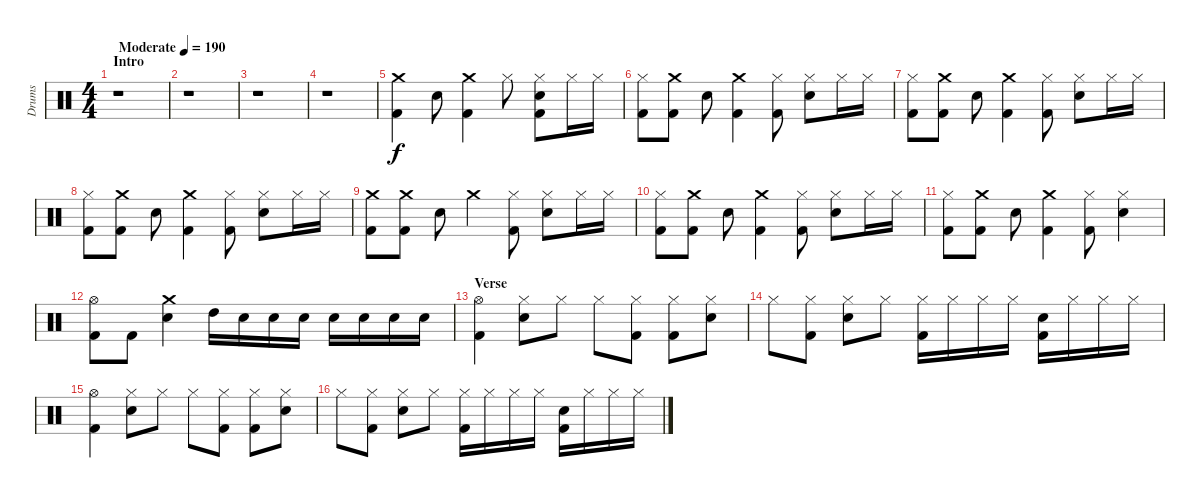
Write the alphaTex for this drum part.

\track ("Drums" "Drums") {instrument percussion}
\staff {score}
\articulation defaults
\ts (4 4)
\section ("" "Intro")
\tempo (190 "Moderate")
\clef neutral
\ks c
r.1{dy f} |
r.1 |
r.1 |
r.1 |
("Crash medium (hit)" "Kick (hit) 2").4 "Snare (hit) 2".8 ("Crash medium (hit)" "Kick (hit) 2").4 "Hi-Hat (closed)".8 ("Hi-Hat (closed)" "Snare (hit) 2" "Kick (hit) 2").8 "Hi-Hat (closed)".16 "Hi-Hat (closed)".16 |
("Hi-Hat (closed)" "Kick (hit) 2").8 ("Crash medium (hit)" "Kick (hit) 2").8 "Snare (hit) 2".8 ("Crash medium (hit)" "Kick (hit) 2").4 ("Hi-Hat (closed)" "Kick (hit) 2").8 ("Hi-Hat (closed)" "Snare (hit) 2").8 "Hi-Hat (closed)".16 "Hi-Hat (closed)".16 |
("Hi-Hat (closed)" "Kick (hit) 2").8 ("Crash medium (hit)" "Kick (hit) 2").8 "Snare (hit) 2".8 ("Crash medium (hit)" "Kick (hit) 2").4 ("Hi-Hat (closed)" "Kick (hit) 2").8 ("Hi-Hat (closed)" "Snare (hit) 2").8 "Hi-Hat (closed)".16 "Hi-Hat (closed)".16 |
("Hi-Hat (closed)" "Kick (hit) 2").8 ("Crash medium (hit)" "Kick (hit) 2").8 "Snare (hit) 2".8 ("Crash medium (hit)" "Kick (hit) 2").4 ("Hi-Hat (closed)" "Kick (hit) 2").8 ("Hi-Hat (closed)" "Snare (hit) 2").8 "Hi-Hat (closed)".16 "Hi-Hat (closed)".16 |
("Crash medium (hit)" "Kick (hit) 2").8 ("Crash medium (hit)" "Kick (hit) 2").8 "Snare (hit) 2".8 "Crash medium (hit)".4 ("Hi-Hat (closed)" "Kick (hit) 2").8 ("Hi-Hat (closed)" "Snare (hit) 2").8 "Hi-Hat (closed)".16 "Hi-Hat (closed)".16 |
("Hi-Hat (closed)" "Kick (hit) 2").8 ("Crash medium (hit)" "Kick (hit) 2").8 "Snare (hit) 2".8 ("Crash medium (hit)" "Kick (hit) 2").4 ("Hi-Hat (closed)" "Kick (hit) 2").8 ("Hi-Hat (closed)" "Snare (hit) 2").8 "Hi-Hat (closed)".16 "Hi-Hat (closed)".16 |
("Hi-Hat (closed)" "Kick (hit) 2").8 ("Crash medium (hit)" "Kick (hit) 2").8 "Snare (hit) 2".8 ("Crash medium (hit)" "Kick (hit) 2").4 ("Hi-Hat (closed)" "Kick (hit) 2").8 ("Hi-Hat (closed)" "Snare (hit) 2").4 |
("Hi-Hat (open)" "Kick (hit) 2").8 "Kick (hit) 2".8 ("Crash medium (hit)" "Snare (hit) 2").4 "High Tom (hit)".16 "Snare (hit) 2".16 "Snare (hit) 2".16 "Snare (hit) 2".16 "Snare (hit) 2".16 "Snare (hit) 2".16 "Snare (hit) 2".16 "Snare (hit) 2".16 |
\section ("" "Verse")
("Hi-Hat (open)" "Kick (hit) 2").4 ("Hi-Hat (closed)" "Snare (hit) 2").8 "Hi-Hat (closed)".8 "Hi-Hat (closed)".8 ("Hi-Hat (closed)" "Kick (hit) 2").8 ("Hi-Hat (closed)" "Kick (hit) 2").8 ("Hi-Hat (closed)" "Snare (hit) 2").8 |
"Hi-Hat (closed)".8 ("Hi-Hat (closed)" "Kick (hit) 2").8 ("Hi-Hat (closed)" "Snare (hit) 2").8 "Hi-Hat (closed)".8 ("Hi-Hat (closed)" "Kick (hit) 2").16 "Hi-Hat (closed)".16 "Hi-Hat (closed)".16 "Hi-Hat (closed)".16 ("Snare (hit) 2" "Kick (hit) 2").16 "Hi-Hat (closed)".16 "Hi-Hat (closed)".16 "Hi-Hat (closed)".16 |
("Hi-Hat (open)" "Kick (hit) 2").4 ("Hi-Hat (closed)" "Snare (hit) 2").8 "Hi-Hat (closed)".8 "Hi-Hat (closed)".8 ("Hi-Hat (closed)" "Kick (hit) 2").8 ("Hi-Hat (closed)" "Kick (hit) 2").8 ("Hi-Hat (closed)" "Snare (hit) 2").8 |
"Hi-Hat (closed)".8 ("Hi-Hat (closed)" "Kick (hit) 2").8 ("Hi-Hat (closed)" "Snare (hit) 2").8 "Hi-Hat (closed)".8 ("Hi-Hat (closed)" "Kick (hit) 2").16 "Hi-Hat (closed)".16 "Hi-Hat (closed)".16 "Hi-Hat (closed)".16 ("Snare (hit) 2" "Kick (hit) 2").16 "Hi-Hat (closed)".16 "Hi-Hat (closed)".16 "Hi-Hat (closed)".16
